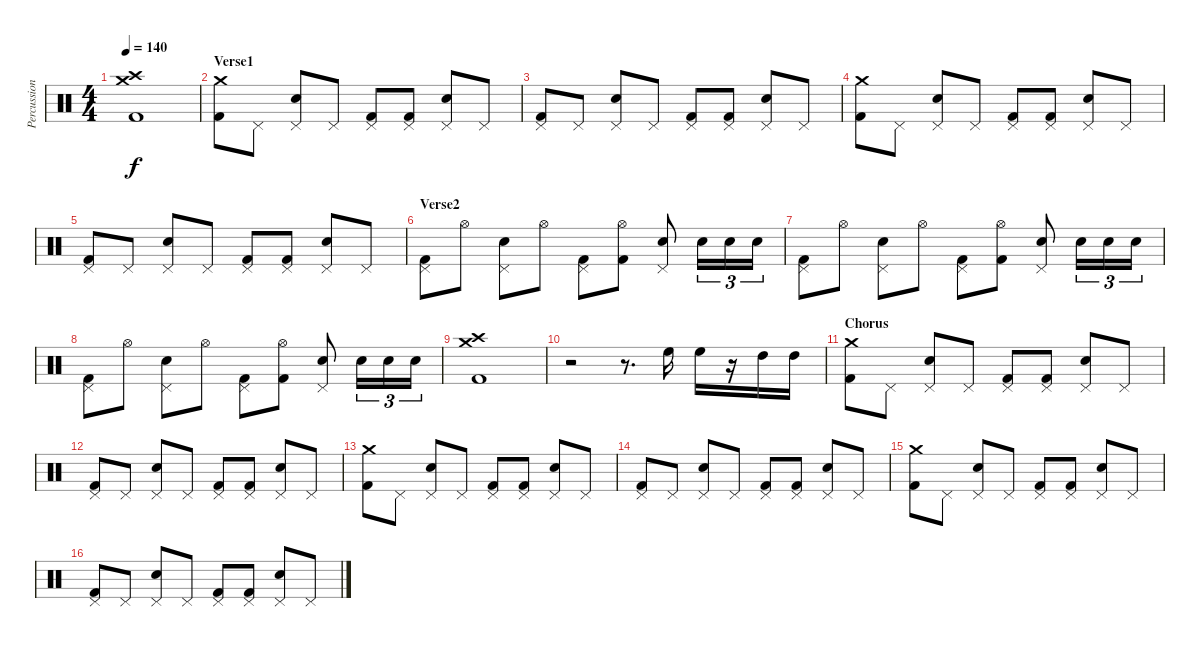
\track ("Percussioni" "Percussion") {instrument percussion}
\staff {score}
\articulation defaults
\ts (4 4)
\tempo 140
\clef neutral
\ks c
("Crash medium (hit)" "Crash high (hit)" "Kick (hit) 2").1{dy f} |
\section ("" "Verse1")
("Crash medium (hit)" "Kick (hit) 2").8 "Pedal Hi-Hat (hit)".8 ("Pedal Hi-Hat (hit)" "Electric Snare (hit)").8 "Pedal Hi-Hat (hit)".8 ("Pedal Hi-Hat (hit)" "Kick (hit) 2").8 ("Pedal Hi-Hat (hit)" "Kick (hit) 2").8 ("Pedal Hi-Hat (hit)" "Electric Snare (hit)").8 "Pedal Hi-Hat (hit)".8 |
("Pedal Hi-Hat (hit)" "Kick (hit) 2").8 "Pedal Hi-Hat (hit)".8 ("Pedal Hi-Hat (hit)" "Electric Snare (hit)").8 "Pedal Hi-Hat (hit)".8 ("Pedal Hi-Hat (hit)" "Kick (hit) 2").8 ("Pedal Hi-Hat (hit)" "Kick (hit) 2").8 ("Pedal Hi-Hat (hit)" "Electric Snare (hit)").8 "Pedal Hi-Hat (hit)".8 |
("Crash medium (hit)" "Kick (hit) 2").8 "Pedal Hi-Hat (hit)".8 ("Pedal Hi-Hat (hit)" "Electric Snare (hit)").8 "Pedal Hi-Hat (hit)".8 ("Pedal Hi-Hat (hit)" "Kick (hit) 2").8 ("Pedal Hi-Hat (hit)" "Kick (hit) 2").8 ("Pedal Hi-Hat (hit)" "Electric Snare (hit)").8 "Pedal Hi-Hat (hit)".8 |
("Pedal Hi-Hat (hit)" "Kick (hit) 2").8 "Pedal Hi-Hat (hit)".8 ("Pedal Hi-Hat (hit)" "Electric Snare (hit)").8 "Pedal Hi-Hat (hit)".8 ("Pedal Hi-Hat (hit)" "Kick (hit) 2").8 ("Pedal Hi-Hat (hit)" "Kick (hit) 2").8 ("Pedal Hi-Hat (hit)" "Electric Snare (hit)").8 "Pedal Hi-Hat (hit)".8 |
\section ("" "Verse2")
("Pedal Hi-Hat (hit)" "Kick (hit) 2").8 "Hi-Hat (open)".8 ("Pedal Hi-Hat (hit)" "Electric Snare (hit)").8 "Hi-Hat (open)".8 ("Pedal Hi-Hat (hit)" "Kick (hit) 2").8 ("Hi-Hat (open)" "Kick (hit) 2").8 ("Pedal Hi-Hat (hit)" "Electric Snare (hit)").8 "Electric Snare (hit)".16{tu (3 2)} "Electric Snare (hit)".16{tu (3 2)} "Electric Snare (hit)".16{tu (3 2)} |
("Pedal Hi-Hat (hit)" "Kick (hit) 2").8 "Hi-Hat (open)".8 ("Pedal Hi-Hat (hit)" "Electric Snare (hit)").8 "Hi-Hat (open)".8 ("Pedal Hi-Hat (hit)" "Kick (hit) 2").8 ("Hi-Hat (open)" "Kick (hit) 2").8 ("Pedal Hi-Hat (hit)" "Electric Snare (hit)").8 "Electric Snare (hit)".16{tu (3 2)} "Electric Snare (hit)".16{tu (3 2)} "Electric Snare (hit)".16{tu (3 2)} |
("Pedal Hi-Hat (hit)" "Kick (hit) 2").8 "Hi-Hat (open)".8 ("Pedal Hi-Hat (hit)" "Electric Snare (hit)").8 "Hi-Hat (open)".8 ("Pedal Hi-Hat (hit)" "Kick (hit) 2").8 ("Hi-Hat (open)" "Kick (hit) 2").8 ("Pedal Hi-Hat (hit)" "Electric Snare (hit)").8 "Electric Snare (hit)".16{tu (3 2)} "Electric Snare (hit)".16{tu (3 2)} "Electric Snare (hit)".16{tu (3 2)} |
("Crash medium (hit)" "Crash high (hit)" "Kick (hit) 2").1 |
r.2 r.8{d} "High Floor Tom (hit)".16 "High Floor Tom (hit)".16 r.16 "High Tom (hit)".16 "High Tom (hit)".16 |
\section ("" "Chorus")
("Crash medium (hit)" "Kick (hit) 2").8 "Pedal Hi-Hat (hit)".8 ("Pedal Hi-Hat (hit)" "Electric Snare (hit)").8 "Pedal Hi-Hat (hit)".8 ("Pedal Hi-Hat (hit)" "Kick (hit) 2").8 ("Pedal Hi-Hat (hit)" "Kick (hit) 2").8 ("Pedal Hi-Hat (hit)" "Electric Snare (hit)").8 "Pedal Hi-Hat (hit)".8 |
("Pedal Hi-Hat (hit)" "Kick (hit) 2").8 "Pedal Hi-Hat (hit)".8 ("Pedal Hi-Hat (hit)" "Electric Snare (hit)").8 "Pedal Hi-Hat (hit)".8 ("Pedal Hi-Hat (hit)" "Kick (hit) 2").8 ("Pedal Hi-Hat (hit)" "Kick (hit) 2").8 ("Pedal Hi-Hat (hit)" "Electric Snare (hit)").8 "Pedal Hi-Hat (hit)".8 |
("Crash medium (hit)" "Kick (hit) 2").8 "Pedal Hi-Hat (hit)".8 ("Pedal Hi-Hat (hit)" "Electric Snare (hit)").8 "Pedal Hi-Hat (hit)".8 ("Pedal Hi-Hat (hit)" "Kick (hit) 2").8 ("Pedal Hi-Hat (hit)" "Kick (hit) 2").8 ("Pedal Hi-Hat (hit)" "Electric Snare (hit)").8 "Pedal Hi-Hat (hit)".8 |
("Pedal Hi-Hat (hit)" "Kick (hit) 2").8 "Pedal Hi-Hat (hit)".8 ("Pedal Hi-Hat (hit)" "Electric Snare (hit)").8 "Pedal Hi-Hat (hit)".8 ("Pedal Hi-Hat (hit)" "Kick (hit) 2").8 ("Pedal Hi-Hat (hit)" "Kick (hit) 2").8 ("Pedal Hi-Hat (hit)" "Electric Snare (hit)").8 "Pedal Hi-Hat (hit)".8 |
("Crash medium (hit)" "Kick (hit) 2").8 "Pedal Hi-Hat (hit)".8 ("Pedal Hi-Hat (hit)" "Electric Snare (hit)").8 "Pedal Hi-Hat (hit)".8 ("Pedal Hi-Hat (hit)" "Kick (hit) 2").8 ("Pedal Hi-Hat (hit)" "Kick (hit) 2").8 ("Pedal Hi-Hat (hit)" "Electric Snare (hit)").8 "Pedal Hi-Hat (hit)".8 |
("Pedal Hi-Hat (hit)" "Kick (hit) 2").8 "Pedal Hi-Hat (hit)".8 ("Pedal Hi-Hat (hit)" "Electric Snare (hit)").8 "Pedal Hi-Hat (hit)".8 ("Pedal Hi-Hat (hit)" "Kick (hit) 2").8 ("Pedal Hi-Hat (hit)" "Kick (hit) 2").8 ("Pedal Hi-Hat (hit)" "Electric Snare (hit)").8 "Pedal Hi-Hat (hit)".8
